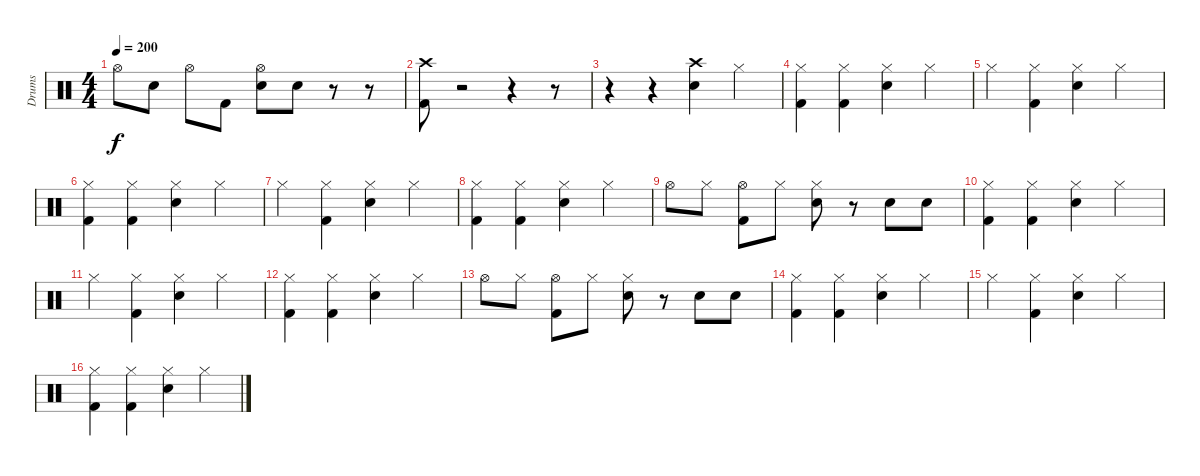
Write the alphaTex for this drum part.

\track ("Drums" "Drums") {instrument percussion}
\staff {score}
\articulation defaults
\ts (4 4)
\tempo 200
\clef neutral
\ks c "Hi-Hat (open)".8{dy f} "Electric Snare (hit)".8 "Hi-Hat (open)".8 "Kick (hit) 2".8
("Hi-Hat (open)" "Electric Snare (hit)").8 "Electric Snare (hit)".8 r.8 r.8 |
("Crash high (hit)" "Kick (hit) 2").8 r.2 r.4 r.8 |
r.4 r.4 ("Crash high (hit)" "Electric Snare (hit)").4 "Hi-Hat (closed)".4 |
("Hi-Hat (closed)" "Kick (hit) 2").4 ("Hi-Hat (closed)" "Kick (hit) 2").4 ("Hi-Hat (closed)" "Electric Snare (hit)").4 "Hi-Hat (closed)".4 |
"Hi-Hat (closed)".4 ("Hi-Hat (closed)" "Kick (hit) 2").4 ("Hi-Hat (closed)" "Electric Snare (hit)").4 "Hi-Hat (closed)".4 |
("Hi-Hat (closed)" "Kick (hit) 2").4 ("Hi-Hat (closed)" "Kick (hit) 2").4 ("Hi-Hat (closed)" "Electric Snare (hit)").4 "Hi-Hat (closed)".4 |
"Hi-Hat (closed)".4 ("Hi-Hat (closed)" "Kick (hit) 2").4 ("Hi-Hat (closed)" "Electric Snare (hit)").4 "Hi-Hat (closed)".4 |
("Hi-Hat (closed)" "Kick (hit) 2").4 ("Hi-Hat (closed)" "Kick (hit) 2").4 ("Hi-Hat (closed)" "Electric Snare (hit)").4 "Hi-Hat (closed)".4 |
"Hi-Hat (open)".8 "Hi-Hat (closed)".8 ("Hi-Hat (open)" "Kick (hit) 2").8 "Hi-Hat (closed)".8 ("Hi-Hat (closed)" "Electric Snare (hit)").8 r.8 "Electric Snare (hit)".8 "Electric Snare (hit)".8 |
("Hi-Hat (closed)" "Kick (hit) 2").4 ("Hi-Hat (closed)" "Kick (hit) 2").4 ("Hi-Hat (closed)" "Electric Snare (hit)").4 "Hi-Hat (closed)".4 |
"Hi-Hat (closed)".4 ("Hi-Hat (closed)" "Kick (hit) 2").4 ("Hi-Hat (closed)" "Electric Snare (hit)").4 "Hi-Hat (closed)".4 |
("Hi-Hat (closed)" "Kick (hit) 2").4 ("Hi-Hat (closed)" "Kick (hit) 2").4 ("Hi-Hat (closed)" "Electric Snare (hit)").4 "Hi-Hat (closed)".4 |
"Hi-Hat (open)".8 "Hi-Hat (closed)".8 ("Hi-Hat (open)" "Kick (hit) 2").8 "Hi-Hat (closed)".8 ("Hi-Hat (closed)" "Electric Snare (hit)").8 r.8 "Electric Snare (hit)".8 "Electric Snare (hit)".8 |
("Hi-Hat (closed)" "Kick (hit) 2").4 ("Hi-Hat (closed)" "Kick (hit) 2").4 ("Hi-Hat (closed)" "Electric Snare (hit)").4 "Hi-Hat (closed)".4 |
"Hi-Hat (closed)".4 ("Hi-Hat (closed)" "Kick (hit) 2").4 ("Hi-Hat (closed)" "Electric Snare (hit)").4 "Hi-Hat (closed)".4 |
("Hi-Hat (closed)" "Kick (hit) 2").4 ("Hi-Hat (closed)" "Kick (hit) 2").4 ("Hi-Hat (closed)" "Electric Snare (hit)").4 "Hi-Hat (closed)".4
